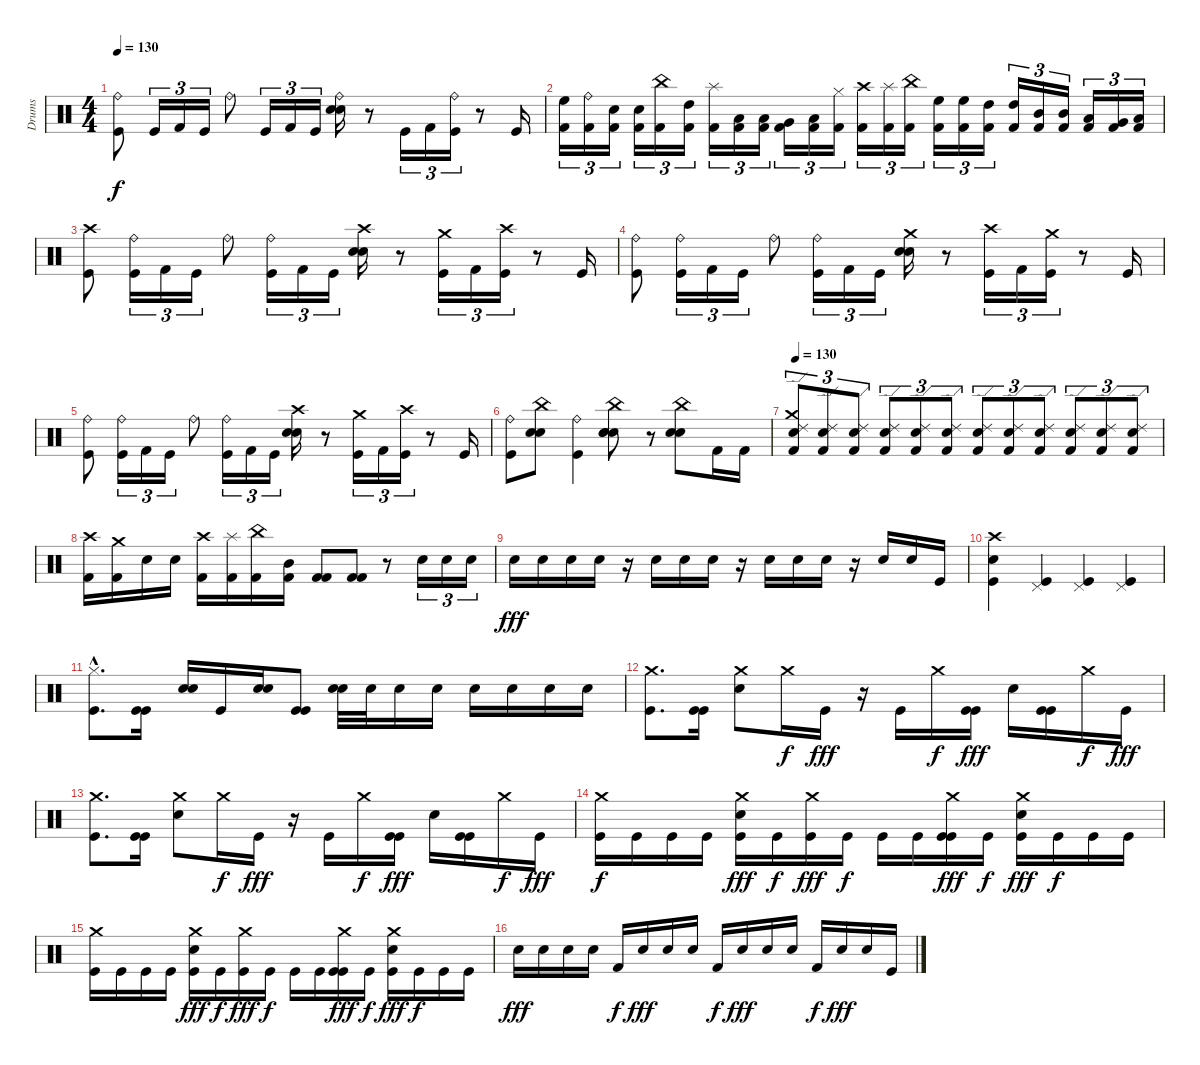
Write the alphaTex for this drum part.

\track ("Drums" "Drums") {instrument percussion}
\staff {score}
\articulation defaults
\ts (4 4)
\tempo 130
\clef neutral
\ks c
("Kick (hit)" "Ride (bell)").8{dy f} "Kick (hit)".16{tu (3 2)} "Kick (hit) 2".16{tu (3 2)} "Kick (hit)".16{tu (3 2)} "Ride (bell)".8 "Kick (hit)".16{tu (3 2)} "Kick (hit) 2".16{tu (3 2)} "Kick (hit)".16{tu (3 2)} ("Ride (bell)" "Snare (hit) 2" "Snare (hit) 2").16 r.8 "Kick (hit)".16{tu (3 2)} "Kick (hit) 2".16{tu (3 2)} ("Kick (hit)" "Ride (bell)").16{tu (3 2)} r.8 "Kick (hit)".16 |
("High Floor Tom (hit)" "Kick (hit) 2").16{tu (3 2)} ("Ride (bell)" "Kick (hit) 2").16{tu (3 2)} ("Electric Snare (hit)" "Kick (hit) 2").16{tu (3 2)} ("Electric Snare (hit)" "Kick (hit) 2").16{tu (3 2)} ("China (hit)" "Kick (hit) 2").16{tu (3 2)} ("High Tom (hit)" "Kick (hit) 2").16{tu (3 2)} ("Splash (hit)" "Kick (hit) 2").16{tu (3 2)} ("Low Tom (hit)" "Kick (hit) 2").16{tu (3 2)} ("Low Tom (hit)" "Kick (hit) 2").16{tu (3 2)} ("Very Low Tom (hit)" "Kick (hit) 2").16{tu (3 2)} ("Low Floor Tom (hit)" "Kick (hit) 2").16{tu (3 2)} ("Hi-Hat (closed)" "Kick (hit) 2").16{tu (3 2)} ("Crash high (hit)" "Kick (hit) 2").16{tu (3 2)} ("Splash (hit)" "Kick (hit) 2").16{tu (3 2)} ("China (hit)" "Kick (hit) 2").16{tu (3 2)} ("High Floor Tom (hit)" "Kick (hit) 2").16{tu (3 2)} ("High Floor Tom (hit)" "Kick (hit) 2").16{tu (3 2)} ("High Tom (hit)" "Kick (hit) 2").16{tu (3 2)} ("High Tom (hit)" "Kick (hit) 2").16{tu (3 2)} ("Mid Tom (hit)" "Kick (hit) 2").16{tu (3 2)} ("Mid Tom (hit)" "Kick (hit) 2").16{tu (3 2)} ("Low Tom (hit)" "Kick (hit) 2").16{tu (3 2)} ("Very Low Tom (hit)" "Kick (hit) 2").16{tu (3 2)} ("Low Floor Tom (hit)" "Kick (hit) 2").16{tu (3 2)} |
("Kick (hit)" "Crash high (hit)").8 ("Kick (hit)" "Ride (bell)").16{tu (3 2)} "Kick (hit) 2".16{tu (3 2)} "Kick (hit)".16{tu (3 2)} "Ride (bell)".8 ("Kick (hit)" "Ride (bell)").16{tu (3 2)} "Kick (hit) 2".16{tu (3 2)} "Kick (hit)".16{tu (3 2)} ("Crash high (hit)" "Snare (hit) 2" "Snare (hit) 2").16 r.8 ("Kick (hit)" "Crash medium (hit)").16{tu (3 2)} "Kick (hit) 2".16{tu (3 2)} ("Kick (hit)" "Crash high (hit)").16{tu (3 2)} r.8 "Kick (hit)".16 |
("Kick (hit)" "Ride (bell)").8 ("Kick (hit)" "Ride (bell)").16{tu (3 2)} "Kick (hit) 2".16{tu (3 2)} "Kick (hit)".16{tu (3 2)} "Ride (bell)".8 ("Kick (hit)" "Ride (bell)").16{tu (3 2)} "Kick (hit) 2".16{tu (3 2)} "Kick (hit)".16{tu (3 2)} ("Crash medium (hit)" "Snare (hit) 2" "Snare (hit) 2").16 r.8 ("Kick (hit)" "Crash high (hit)").16{tu (3 2)} "Kick (hit) 2".16{tu (3 2)} ("Kick (hit)" "Crash medium (hit)").16{tu (3 2)} r.8 "Kick (hit)".16 |
("Kick (hit)" "Ride (bell)").8 ("Kick (hit)" "Ride (bell)").16{tu (3 2)} "Kick (hit) 2".16{tu (3 2)} "Kick (hit)".16{tu (3 2)} "Ride (bell)".8 ("Kick (hit)" "Ride (bell)").16{tu (3 2)} "Kick (hit) 2".16{tu (3 2)} "Kick (hit)".16{tu (3 2)} ("Crash high (hit)" "Snare (hit) 2" "Snare (hit) 2").16 r.8 ("Kick (hit)" "Crash medium (hit)").16{tu (3 2)} "Kick (hit) 2".16{tu (3 2)} ("Kick (hit)" "Crash high (hit)").16{tu (3 2)} r.8 "Kick (hit)".16 |
("Kick (hit)" "Ride (bell)").8 ("China (hit)" "Snare (hit) 2" "Snare (hit) 2").8 ("Kick (hit)" "Ride (bell)").4 ("China (hit)" "Snare (hit) 2" "Electric Snare (hit)" "Snare (hit) 2").8 r.8 ("China (hit)" "Snare (hit) 2" "Snare (hit) 2").8 "Kick (hit) 2".16 "Kick (hit) 2".16 |
\tempo 130
("Crash medium (hit)" "Ride (edge) 2" "Snare (hit) 2" "Kick (hit) 2").8{tu (3 2)} ("Ride (edge) 2" "Snare (hit) 2" "Kick (hit) 2").8{tu (3 2)} ("Ride (edge) 2" "Snare (hit) 2" "Kick (hit) 2").8{tu (3 2)} ("Ride (edge) 2" "Snare (hit) 2" "Kick (hit) 2").8{tu (3 2)} ("Ride (edge) 2" "Snare (hit) 2" "Kick (hit) 2").8{tu (3 2)} ("Ride (edge) 2" "Snare (hit) 2" "Kick (hit) 2").8{tu (3 2)} ("Ride (edge) 2" "Snare (hit) 2" "Kick (hit) 2").8{tu (3 2)} ("Ride (edge) 2" "Snare (hit) 2" "Kick (hit) 2").8{tu (3 2)} ("Ride (edge) 2" "Snare (hit) 2" "Kick (hit) 2").8{tu (3 2)} ("Ride (edge) 2" "Snare (hit) 2" "Kick (hit) 2").8{tu (3 2)} ("Ride (edge) 2" "Snare (hit) 2" "Kick (hit) 2").8{tu (3 2)} ("Ride (edge) 2" "Snare (hit) 2" "Kick (hit) 2").8{tu (3 2)} |
("Crash high (hit)" "Kick (hit) 2").16 ("Crash medium (hit)" "Kick (hit) 2").16 "Electric Snare (hit)".16 "Electric Snare (hit)".16 ("Crash high (hit)" "Kick (hit) 2").16 ("Splash (hit)" "Kick (hit) 2").16 ("China (hit)" "Kick (hit) 2").16 ("Mid Tom (hit)" "Kick (hit) 2").16 ("Kick (hit) 2" "Kick (hit) 2").8 ("Kick (hit) 2" "Kick (hit) 2").8 r.8 "Snare (hit) 2".16{tu (3 2)} "Snare (hit) 2".16{tu (3 2)} "Snare (hit) 2".16{tu (3 2)} |
"Snare (hit) 2".16{dy fff} "Snare (hit) 2".16 "Snare (hit) 2".16 "Snare (hit) 2".16 r.16 "Snare (hit) 2".16 "Snare (hit) 2".16 "Snare (hit) 2".16 r.16 "Snare (hit) 2".16 "Snare (hit) 2".16 "Snare (hit) 2".16 r.16 "Snare (hit) 2".16 "Snare (hit) 2".16 "Kick (hit)".16 |
("Snare (hit) 2" "Crash high (hit)" "Kick (hit)").4 ("Kick (hit)" "Pedal Hi-Hat (hit)").4 ("Kick (hit)" "Pedal Hi-Hat (hit)").4 ("Kick (hit)" "Pedal Hi-Hat (hit)").4 |
("Kick (hit)"{hac} "Hi-Hat (closed)"{hac}).8{d} ("Kick (hit)" "Kick (hit)").16 ("Snare (hit) 2" "Snare (hit) 2").16 "Kick (hit)".16 ("Snare (hit) 2" "Snare (hit) 2").16 ("Kick (hit)" "Kick (hit)").8 ("Snare (hit) 2" "Snare (hit) 2").32 "Snare (hit) 2".32 "Snare (hit) 2".16 "Snare (hit) 2".16 "Snare (hit) 2".16 "Snare (hit) 2".16 "Snare (hit) 2".16 "Snare (hit) 2".16 |
("Kick (hit)" "Crash medium (hit)").8{d} ("Kick (hit)" "Kick (hit)").16 ("Snare (hit) 2" "Crash medium (hit)").8 "Crash medium (hit)".16{dy f} "Kick (hit)".16{dy fff} r.16 "Kick (hit)".16 "Crash medium (hit)".16{dy f} ("Kick (hit)" "Kick (hit)").16{dy fff} "Snare (hit) 2".16 ("Kick (hit)" "Kick (hit)").16 "Crash medium (hit)".16{dy f} "Kick (hit)".16{dy fff} |
("Kick (hit)" "Crash medium (hit)").8{d} ("Kick (hit)" "Kick (hit)").16 ("Snare (hit) 2" "Crash medium (hit)").8 "Crash medium (hit)".16{dy f} "Kick (hit)".16{dy fff} r.16 "Kick (hit)".16 "Crash medium (hit)".16{dy f} ("Kick (hit)" "Kick (hit)").16{dy fff} "Snare (hit) 2".16 ("Kick (hit)" "Kick (hit)").16 "Crash medium (hit)".16{dy f} "Kick (hit)".16{dy fff} |
("Crash medium (hit)" "Kick (hit)").16{dy f} "Kick (hit)".16 "Kick (hit)".16 "Kick (hit)".16 ("Snare (hit) 2" "Crash medium (hit)" "Kick (hit)").16{dy fff} "Kick (hit)".16{dy f} ("Crash medium (hit)" "Kick (hit)").16{dy fff} "Kick (hit)".16{dy f} "Kick (hit)".16 "Kick (hit)".16 ("Kick (hit)" "Crash medium (hit)" "Kick (hit)").16{dy fff} "Kick (hit)".16{dy f} ("Crash medium (hit)" "Snare (hit) 2" "Kick (hit)").16{dy fff} "Kick (hit)".16{dy f} "Kick (hit)".16 "Kick (hit)".16 |
("Crash medium (hit)" "Kick (hit)").16 "Kick (hit)".16 "Kick (hit)".16 "Kick (hit)".16 ("Snare (hit) 2" "Crash medium (hit)" "Kick (hit)").16{dy fff} "Kick (hit)".16{dy f} ("Crash medium (hit)" "Kick (hit)").16{dy fff} "Kick (hit)".16{dy f} "Kick (hit)".16 "Kick (hit)".16 ("Kick (hit)" "Crash medium (hit)" "Kick (hit)").16{dy fff} "Kick (hit)".16{dy f} ("Crash medium (hit)" "Snare (hit) 2" "Kick (hit)").16{dy fff} "Kick (hit)".16{dy f} "Kick (hit)".16 "Kick (hit)".16 |
"Snare (hit) 2".16{dy fff} "Snare (hit) 2".16 "Snare (hit) 2".16 "Snare (hit) 2".16 "Kick (hit) 2".16{dy f} "Snare (hit) 2".16{dy fff} "Snare (hit) 2".16 "Snare (hit) 2".16 "Kick (hit) 2".16{dy f} "Snare (hit) 2".16{dy fff} "Snare (hit) 2".16 "Snare (hit) 2".16 "Kick (hit) 2".16{dy f} "Snare (hit) 2".16{dy fff} "Snare (hit) 2".16 "Kick (hit)".16
